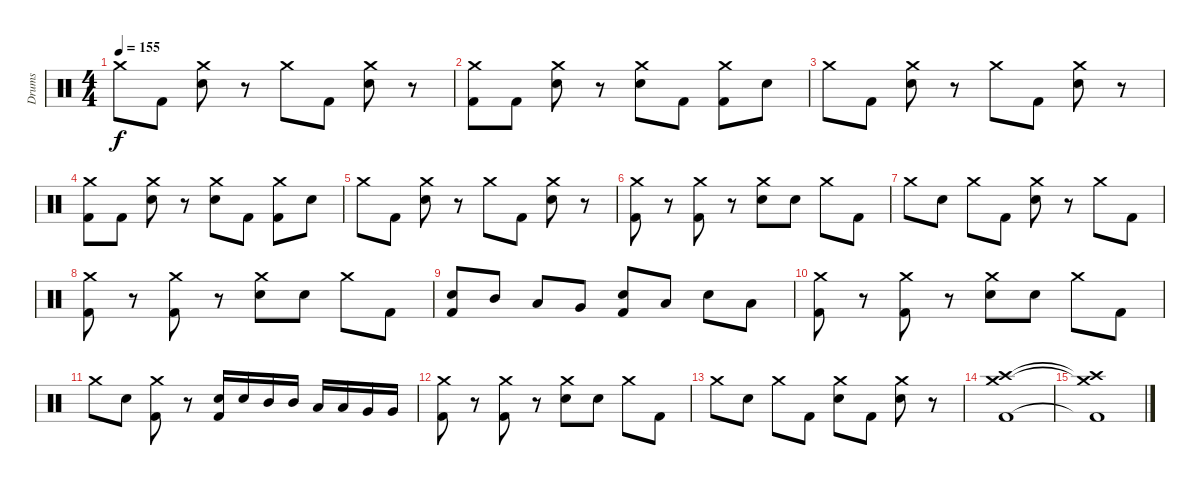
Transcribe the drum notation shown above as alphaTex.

\track ("Drums" "Drums") {instrument percussion}
\staff {score}
\articulation defaults
\ts (4 4)
\tempo 155
\clef neutral
\ks c "Crash medium (hit)".8{dy f} "Kick (hit) 2".8
("Crash medium (hit)" "Electric Snare (hit)").8 r.8 "Crash medium (hit)".8 "Kick (hit) 2".8 ("Crash medium (hit)" "Electric Snare (hit)").8 r.8 |
("Crash medium (hit)" "Kick (hit) 2").8 "Kick (hit) 2".8 ("Crash medium (hit)" "Electric Snare (hit)").8 r.8 ("Crash medium (hit)" "Electric Snare (hit)").8 "Kick (hit) 2".8 ("Crash medium (hit)" "Kick (hit) 2").8 "Electric Snare (hit)".8 |
"Crash medium (hit)".8 "Kick (hit) 2".8 ("Crash medium (hit)" "Electric Snare (hit)").8 r.8 "Crash medium (hit)".8 "Kick (hit) 2".8 ("Crash medium (hit)" "Electric Snare (hit)").8 r.8 |
("Crash medium (hit)" "Kick (hit) 2").8 "Kick (hit) 2".8 ("Crash medium (hit)" "Electric Snare (hit)").8 r.8 ("Crash medium (hit)" "Electric Snare (hit)").8 "Kick (hit) 2".8 ("Crash medium (hit)" "Kick (hit) 2").8 "Electric Snare (hit)".8 |
"Crash medium (hit)".8 "Kick (hit) 2".8 ("Crash medium (hit)" "Electric Snare (hit)").8 r.8 "Crash medium (hit)".8 "Kick (hit) 2".8 ("Crash medium (hit)" "Electric Snare (hit)").8 r.8 |
("Crash medium (hit)" "Kick (hit) 2").8 r.8 ("Crash medium (hit)" "Kick (hit) 2").8 r.8 ("Crash medium (hit)" "Electric Snare (hit)").8 "Electric Snare (hit)".8 "Crash medium (hit)".8 "Kick (hit) 2".8 |
"Crash medium (hit)".8 "Electric Snare (hit)".8 "Crash medium (hit)".8 "Kick (hit) 2".8 ("Crash medium (hit)" "Electric Snare (hit)").8 r.8 "Crash medium (hit)".8 "Kick (hit) 2".8 |
("Crash medium (hit)" "Kick (hit) 2").8 r.8 ("Crash medium (hit)" "Kick (hit) 2").8 r.8 ("Crash medium (hit)" "Electric Snare (hit)").8 "Electric Snare (hit)".8 "Crash medium (hit)".8 "Kick (hit) 2".8 |
("Electric Snare (hit)" "Kick (hit) 2").8 "Mid Tom (hit)".8 "Low Tom (hit)".8 "Very Low Tom (hit)".8 ("Electric Snare (hit)" "Kick (hit) 2").8 "Low Tom (hit)".8 "Electric Snare (hit)".8 "Low Floor Tom (hit)".8 |
("Crash medium (hit)" "Kick (hit) 2").8 r.8 ("Crash medium (hit)" "Kick (hit) 2").8 r.8 ("Crash medium (hit)" "Electric Snare (hit)").8 "Electric Snare (hit)".8 "Crash medium (hit)".8 "Kick (hit) 2".8 |
"Crash medium (hit)".8 "Electric Snare (hit)".8 ("Crash medium (hit)" "Kick (hit) 2").8 r.8 ("Electric Snare (hit)" "Kick (hit) 2").16 "Electric Snare (hit)".16 "Mid Tom (hit)".16 "Mid Tom (hit)".16 "Low Tom (hit)".16 "Low Tom (hit)".16 "Very Low Tom (hit)".16 "Very Low Tom (hit)".16 |
("Crash medium (hit)" "Kick (hit) 2").8 r.8 ("Crash medium (hit)" "Kick (hit) 2").8 r.8 ("Crash medium (hit)" "Electric Snare (hit)").8 "Electric Snare (hit)".8 "Crash medium (hit)".8 "Kick (hit) 2".8 |
"Crash medium (hit)".8 "Electric Snare (hit)".8 "Crash medium (hit)".8 "Kick (hit) 2".8 ("Crash medium (hit)" "Electric Snare (hit)").8 "Kick (hit) 2".8 ("Crash medium (hit)" "Electric Snare (hit)").8 r.8 |
("Crash medium (hit)" "Crash high (hit)" "Kick (hit) 2").1 |
("Crash medium (hit)"{t} "Crash high (hit)"{t} "Kick (hit) 2"{t}).1
